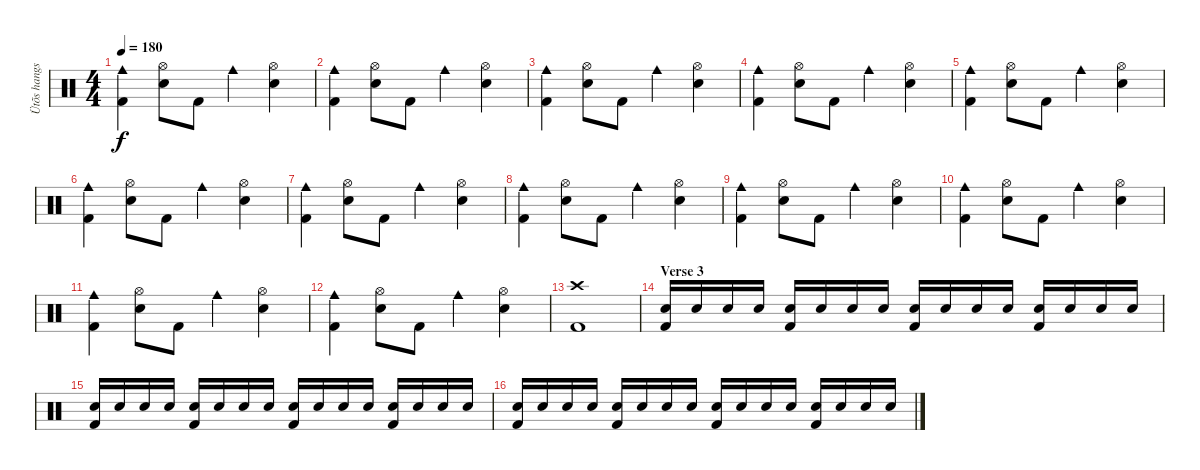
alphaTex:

\track ("Ütõs hangszer" "Ütõs hangs") {instrument percussion}
\staff {score}
\articulation defaults
\ts (4 4)
\tempo 180
\clef neutral
\ks c
("Cowbell medium (hit)" "Kick (hit) 2").4{dy f} ("Hi-Hat (open)" "Electric Snare (hit)").8 "Kick (hit) 2".8 "Cowbell medium (hit)".4 ("Hi-Hat (open)" "Electric Snare (hit)").4 |
("Cowbell medium (hit)" "Kick (hit) 2").4 ("Hi-Hat (open)" "Electric Snare (hit)").8 "Kick (hit) 2".8 "Cowbell medium (hit)".4 ("Hi-Hat (open)" "Electric Snare (hit)").4 |
("Cowbell medium (hit)" "Kick (hit) 2").4 ("Hi-Hat (open)" "Electric Snare (hit)").8 "Kick (hit) 2".8 "Cowbell medium (hit)".4 ("Hi-Hat (open)" "Electric Snare (hit)").4 |
("Cowbell medium (hit)" "Kick (hit) 2").4 ("Hi-Hat (open)" "Electric Snare (hit)").8 "Kick (hit) 2".8 "Cowbell medium (hit)".4 ("Hi-Hat (open)" "Electric Snare (hit)").4 |
("Cowbell medium (hit)" "Kick (hit) 2").4 ("Hi-Hat (open)" "Electric Snare (hit)").8 "Kick (hit) 2".8 "Cowbell medium (hit)".4 ("Hi-Hat (open)" "Electric Snare (hit)").4 |
("Cowbell medium (hit)" "Kick (hit) 2").4 ("Hi-Hat (open)" "Electric Snare (hit)").8 "Kick (hit) 2".8 "Cowbell medium (hit)".4 ("Hi-Hat (open)" "Electric Snare (hit)").4 |
("Cowbell medium (hit)" "Kick (hit) 2").4 ("Hi-Hat (open)" "Electric Snare (hit)").8 "Kick (hit) 2".8 "Cowbell medium (hit)".4 ("Hi-Hat (open)" "Electric Snare (hit)").4 |
("Cowbell medium (hit)" "Kick (hit) 2").4 ("Hi-Hat (open)" "Electric Snare (hit)").8 "Kick (hit) 2".8 "Cowbell medium (hit)".4 ("Hi-Hat (open)" "Electric Snare (hit)").4 |
("Cowbell medium (hit)" "Kick (hit) 2").4 ("Hi-Hat (open)" "Electric Snare (hit)").8 "Kick (hit) 2".8 "Cowbell medium (hit)".4 ("Hi-Hat (open)" "Electric Snare (hit)").4 |
("Cowbell medium (hit)" "Kick (hit) 2").4 ("Hi-Hat (open)" "Electric Snare (hit)").8 "Kick (hit) 2".8 "Cowbell medium (hit)".4 ("Hi-Hat (open)" "Electric Snare (hit)").4 |
("Cowbell medium (hit)" "Kick (hit) 2").4 ("Hi-Hat (open)" "Electric Snare (hit)").8 "Kick (hit) 2".8 "Cowbell medium (hit)".4 ("Hi-Hat (open)" "Electric Snare (hit)").4 |
("Cowbell medium (hit)" "Kick (hit) 2").4 ("Hi-Hat (open)" "Electric Snare (hit)").8 "Kick (hit) 2".8 "Cowbell medium (hit)".4 ("Hi-Hat (open)" "Electric Snare (hit)").4 |
("Crash high (hit)" "Kick (hit) 2").1 |
\section ("" "Verse 3")
("Snare (hit) 2" "Kick (hit) 2").16 "Electric Snare (hit)".16 "Electric Snare (hit)".16 "Electric Snare (hit)".16 ("Snare (hit) 2" "Kick (hit) 2").16 "Electric Snare (hit)".16 "Electric Snare (hit)".16 "Electric Snare (hit)".16 ("Snare (hit) 2" "Kick (hit) 2").16 "Electric Snare (hit)".16 "Electric Snare (hit)".16 "Electric Snare (hit)".16 ("Snare (hit) 2" "Kick (hit) 2").16 "Electric Snare (hit)".16 "Electric Snare (hit)".16 "Electric Snare (hit)".16 |
("Snare (hit) 2" "Kick (hit) 2").16 "Electric Snare (hit)".16 "Electric Snare (hit)".16 "Electric Snare (hit)".16 ("Snare (hit) 2" "Kick (hit) 2").16 "Electric Snare (hit)".16 "Electric Snare (hit)".16 "Electric Snare (hit)".16 ("Snare (hit) 2" "Kick (hit) 2").16 "Electric Snare (hit)".16 "Electric Snare (hit)".16 "Electric Snare (hit)".16 ("Snare (hit) 2" "Kick (hit) 2").16 "Electric Snare (hit)".16 "Electric Snare (hit)".16 "Electric Snare (hit)".16 |
("Snare (hit) 2" "Kick (hit) 2").16 "Electric Snare (hit)".16 "Electric Snare (hit)".16 "Electric Snare (hit)".16 ("Snare (hit) 2" "Kick (hit) 2").16 "Electric Snare (hit)".16 "Electric Snare (hit)".16 "Electric Snare (hit)".16 ("Snare (hit) 2" "Kick (hit) 2").16 "Electric Snare (hit)".16 "Electric Snare (hit)".16 "Electric Snare (hit)".16 ("Snare (hit) 2" "Kick (hit) 2").16 "Electric Snare (hit)".16 "Electric Snare (hit)".16 "Electric Snare (hit)".16
